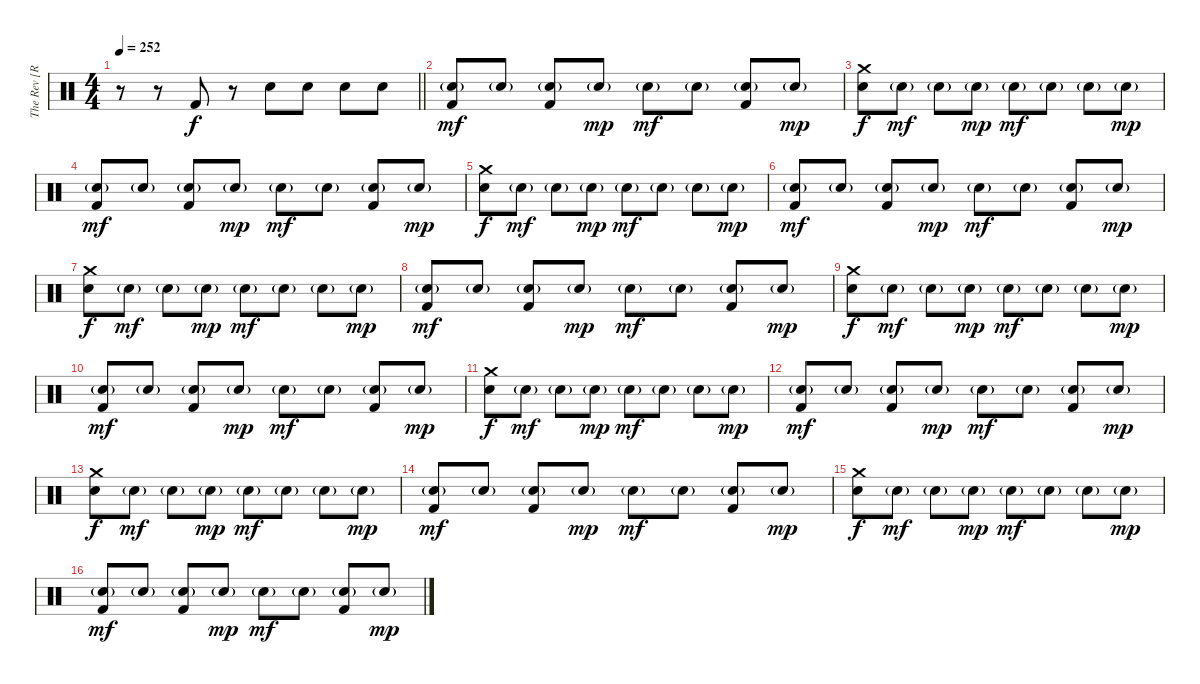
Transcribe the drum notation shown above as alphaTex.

\track ("The Rev [R.I.P]" "The Rev [R") {instrument percussion}
\staff {score}
\articulation defaults
\ts (4 4)
\tempo 252
\clef neutral
\barLineRight lightlight
\ks c
r.8{dy f} r.8 "Kick (hit) 2".8 r.8 "Electric Snare (hit)".8 "Electric Snare (hit)".8 "Electric Snare (hit)".8 "Electric Snare (hit)".8 |
("Electric Snare (hit)"{g} "Kick (hit) 2").8{dy mf} "Electric Snare (hit)"{g}.8 ("Electric Snare (hit)"{g} "Kick (hit) 2").8 "Electric Snare (hit)"{g}.8{dy mp} "Electric Snare (hit)"{g}.8{dy mf} "Electric Snare (hit)"{g}.8 ("Electric Snare (hit)"{g} "Kick (hit) 2").8 "Electric Snare (hit)"{g}.8{dy mp} |
("Crash medium (hit)" "Electric Snare (hit)").8{dy f} "Electric Snare (hit)"{g}.8{dy mf} "Electric Snare (hit)"{g}.8 "Electric Snare (hit)"{g}.8{dy mp} "Electric Snare (hit)"{g}.8{dy mf} "Electric Snare (hit)"{g}.8 "Electric Snare (hit)"{g}.8 "Electric Snare (hit)"{g}.8{dy mp} |
("Electric Snare (hit)"{g} "Kick (hit) 2").8{dy mf} "Electric Snare (hit)"{g}.8 ("Electric Snare (hit)"{g} "Kick (hit) 2").8 "Electric Snare (hit)"{g}.8{dy mp} "Electric Snare (hit)"{g}.8{dy mf} "Electric Snare (hit)"{g}.8 ("Electric Snare (hit)"{g} "Kick (hit) 2").8 "Electric Snare (hit)"{g}.8{dy mp} |
("Crash medium (hit)" "Electric Snare (hit)").8{dy f} "Electric Snare (hit)"{g}.8{dy mf} "Electric Snare (hit)"{g}.8 "Electric Snare (hit)"{g}.8{dy mp} "Electric Snare (hit)"{g}.8{dy mf} "Electric Snare (hit)"{g}.8 "Electric Snare (hit)"{g}.8 "Electric Snare (hit)"{g}.8{dy mp} |
("Electric Snare (hit)"{g} "Kick (hit) 2").8{dy mf} "Electric Snare (hit)"{g}.8 ("Electric Snare (hit)"{g} "Kick (hit) 2").8 "Electric Snare (hit)"{g}.8{dy mp} "Electric Snare (hit)"{g}.8{dy mf} "Electric Snare (hit)"{g}.8 ("Electric Snare (hit)"{g} "Kick (hit) 2").8 "Electric Snare (hit)"{g}.8{dy mp} |
("Crash medium (hit)" "Electric Snare (hit)").8{dy f} "Electric Snare (hit)"{g}.8{dy mf} "Electric Snare (hit)"{g}.8 "Electric Snare (hit)"{g}.8{dy mp} "Electric Snare (hit)"{g}.8{dy mf} "Electric Snare (hit)"{g}.8 "Electric Snare (hit)"{g}.8 "Electric Snare (hit)"{g}.8{dy mp} |
("Electric Snare (hit)"{g} "Kick (hit) 2").8{dy mf} "Electric Snare (hit)"{g}.8 ("Electric Snare (hit)"{g} "Kick (hit) 2").8 "Electric Snare (hit)"{g}.8{dy mp} "Electric Snare (hit)"{g}.8{dy mf} "Electric Snare (hit)"{g}.8 ("Electric Snare (hit)"{g} "Kick (hit) 2").8 "Electric Snare (hit)"{g}.8{dy mp} |
("Crash medium (hit)" "Electric Snare (hit)").8{dy f} "Electric Snare (hit)"{g}.8{dy mf} "Electric Snare (hit)"{g}.8 "Electric Snare (hit)"{g}.8{dy mp} "Electric Snare (hit)"{g}.8{dy mf} "Electric Snare (hit)"{g}.8 "Electric Snare (hit)"{g}.8 "Electric Snare (hit)"{g}.8{dy mp} |
("Electric Snare (hit)"{g} "Kick (hit) 2").8{dy mf} "Electric Snare (hit)"{g}.8 ("Electric Snare (hit)"{g} "Kick (hit) 2").8 "Electric Snare (hit)"{g}.8{dy mp} "Electric Snare (hit)"{g}.8{dy mf} "Electric Snare (hit)"{g}.8 ("Electric Snare (hit)"{g} "Kick (hit) 2").8 "Electric Snare (hit)"{g}.8{dy mp} |
("Crash medium (hit)" "Electric Snare (hit)").8{dy f} "Electric Snare (hit)"{g}.8{dy mf} "Electric Snare (hit)"{g}.8 "Electric Snare (hit)"{g}.8{dy mp} "Electric Snare (hit)"{g}.8{dy mf} "Electric Snare (hit)"{g}.8 "Electric Snare (hit)"{g}.8 "Electric Snare (hit)"{g}.8{dy mp} |
("Electric Snare (hit)"{g} "Kick (hit) 2").8{dy mf} "Electric Snare (hit)"{g}.8 ("Electric Snare (hit)"{g} "Kick (hit) 2").8 "Electric Snare (hit)"{g}.8{dy mp} "Electric Snare (hit)"{g}.8{dy mf} "Electric Snare (hit)"{g}.8 ("Electric Snare (hit)"{g} "Kick (hit) 2").8 "Electric Snare (hit)"{g}.8{dy mp} |
("Crash medium (hit)" "Electric Snare (hit)").8{dy f} "Electric Snare (hit)"{g}.8{dy mf} "Electric Snare (hit)"{g}.8 "Electric Snare (hit)"{g}.8{dy mp} "Electric Snare (hit)"{g}.8{dy mf} "Electric Snare (hit)"{g}.8 "Electric Snare (hit)"{g}.8 "Electric Snare (hit)"{g}.8{dy mp} |
("Electric Snare (hit)"{g} "Kick (hit) 2").8{dy mf} "Electric Snare (hit)"{g}.8 ("Electric Snare (hit)"{g} "Kick (hit) 2").8 "Electric Snare (hit)"{g}.8{dy mp} "Electric Snare (hit)"{g}.8{dy mf} "Electric Snare (hit)"{g}.8 ("Electric Snare (hit)"{g} "Kick (hit) 2").8 "Electric Snare (hit)"{g}.8{dy mp} |
("Crash medium (hit)" "Electric Snare (hit)").8{dy f} "Electric Snare (hit)"{g}.8{dy mf} "Electric Snare (hit)"{g}.8 "Electric Snare (hit)"{g}.8{dy mp} "Electric Snare (hit)"{g}.8{dy mf} "Electric Snare (hit)"{g}.8 "Electric Snare (hit)"{g}.8 "Electric Snare (hit)"{g}.8{dy mp} |
("Electric Snare (hit)"{g} "Kick (hit) 2").8{dy mf} "Electric Snare (hit)"{g}.8 ("Electric Snare (hit)"{g} "Kick (hit) 2").8 "Electric Snare (hit)"{g}.8{dy mp} "Electric Snare (hit)"{g}.8{dy mf} "Electric Snare (hit)"{g}.8 ("Electric Snare (hit)"{g} "Kick (hit) 2").8 "Electric Snare (hit)"{g}.8{dy mp}
